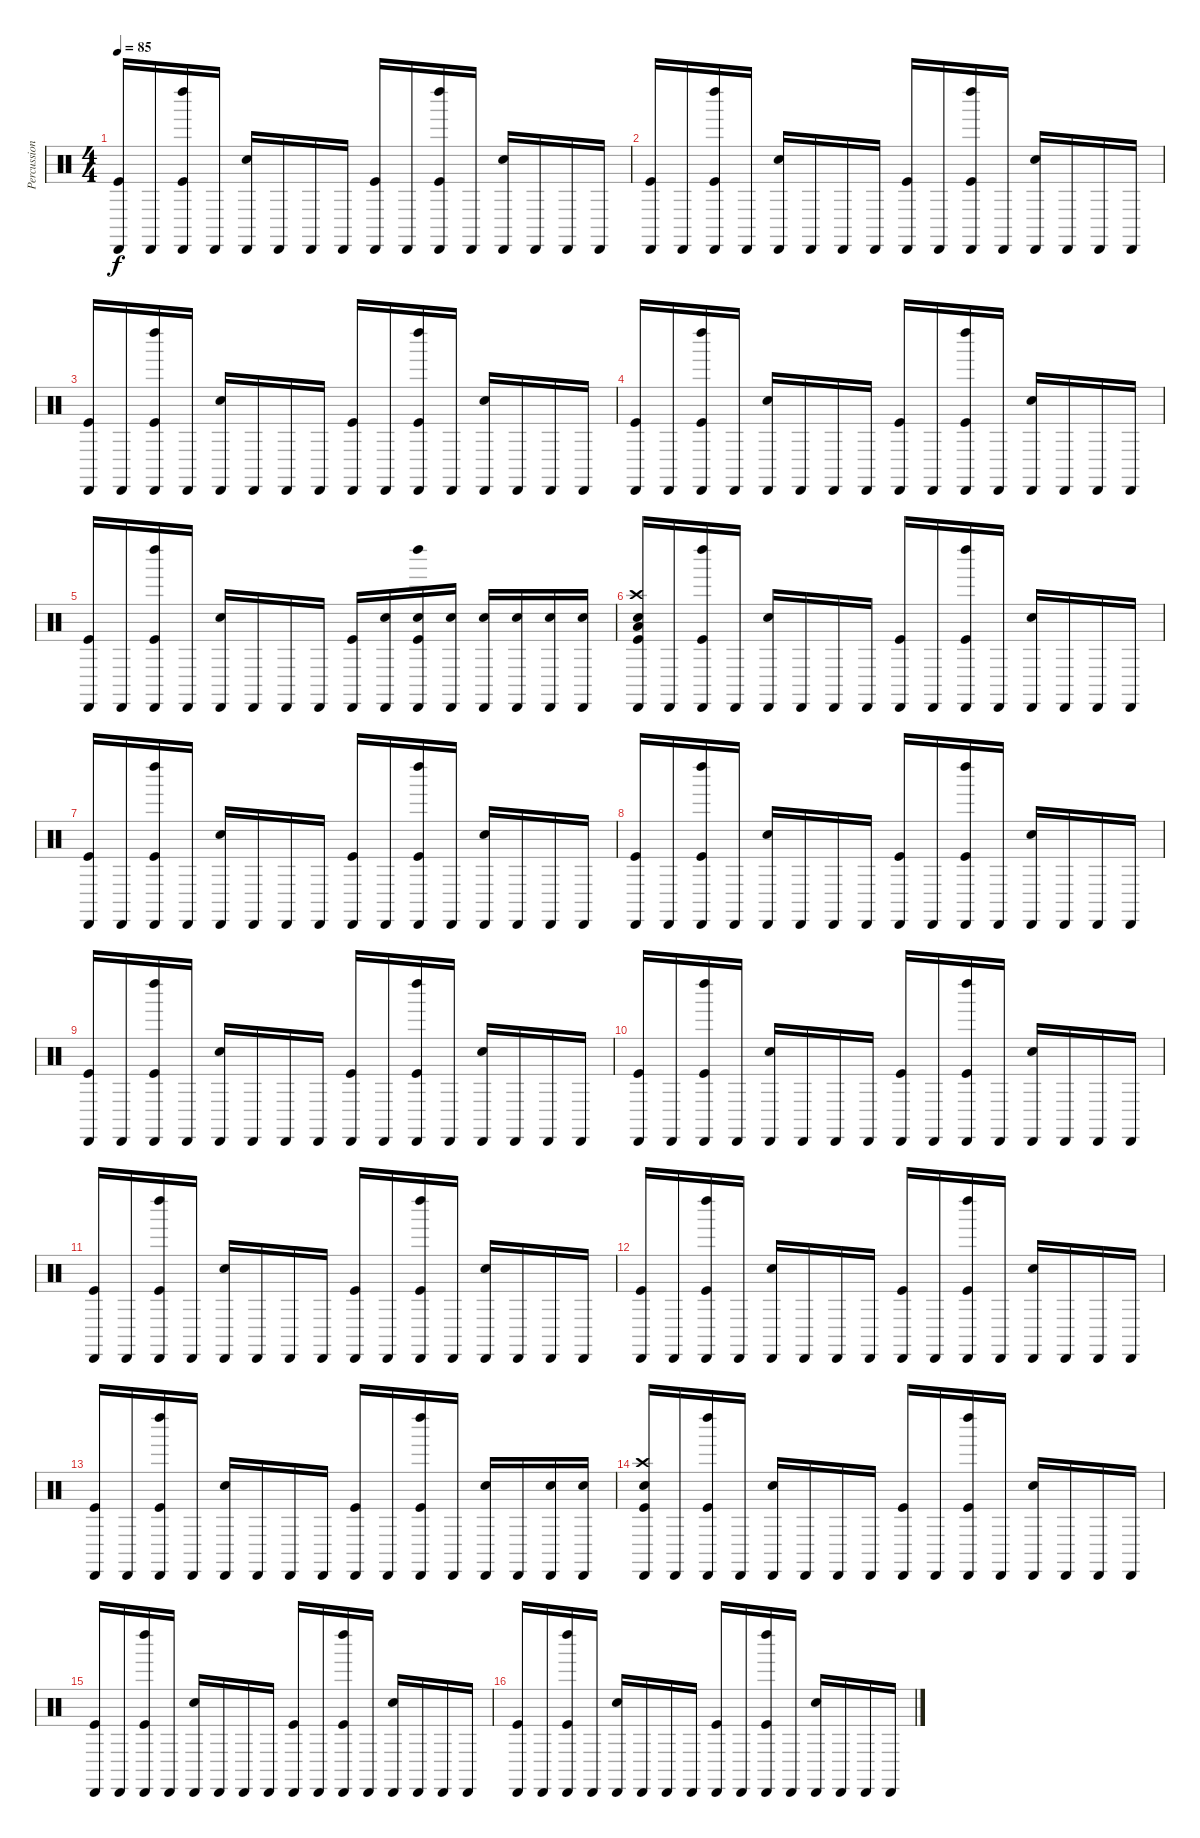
\track ("Percussions" "Percussion") {instrument percussion}
\staff {score}
\articulation defaults
\ts (4 4)
\tempo 85
\clef neutral
\ks c
("Cabasa (hit)" "Kick (hit)").16{dy f} "Cabasa (hit)".16 ("Kick (hit)" "Cabasa (hit)" "Left Maraca (hit)").16 "Cabasa (hit)".16 ("Snare (hit) 2" "Cabasa (hit)").16 "Cabasa (hit)".16 "Cabasa (hit)".16 "Cabasa (hit)".16 ("Kick (hit)" "Cabasa (hit)").16 "Cabasa (hit)".16 ("Kick (hit)" "Cabasa (hit)" "Left Maraca (hit)").16 "Cabasa (hit)".16 ("Snare (hit) 2" "Cabasa (hit)").16 "Cabasa (hit)".16 "Cabasa (hit)".16 "Cabasa (hit)".16 |
("Cabasa (hit)" "Kick (hit)").16 "Cabasa (hit)".16 ("Kick (hit)" "Cabasa (hit)" "Left Maraca (hit)").16 "Cabasa (hit)".16 ("Snare (hit) 2" "Cabasa (hit)").16 "Cabasa (hit)".16 "Cabasa (hit)".16 "Cabasa (hit)".16 ("Kick (hit)" "Cabasa (hit)").16 "Cabasa (hit)".16 ("Kick (hit)" "Cabasa (hit)" "Left Maraca (hit)").16 "Cabasa (hit)".16 ("Snare (hit) 2" "Cabasa (hit)").16 "Cabasa (hit)".16 "Cabasa (hit)".16 "Cabasa (hit)".16 |
("Cabasa (hit)" "Kick (hit)").16 "Cabasa (hit)".16 ("Kick (hit)" "Cabasa (hit)" "Left Maraca (hit)").16 "Cabasa (hit)".16 ("Snare (hit) 2" "Cabasa (hit)").16 "Cabasa (hit)".16 "Cabasa (hit)".16 "Cabasa (hit)".16 ("Kick (hit)" "Cabasa (hit)").16 "Cabasa (hit)".16 ("Kick (hit)" "Cabasa (hit)" "Left Maraca (hit)").16 "Cabasa (hit)".16 ("Snare (hit) 2" "Cabasa (hit)").16 "Cabasa (hit)".16 "Cabasa (hit)".16 "Cabasa (hit)".16 |
("Cabasa (hit)" "Kick (hit)").16 "Cabasa (hit)".16 ("Kick (hit)" "Cabasa (hit)" "Left Maraca (hit)").16 "Cabasa (hit)".16 ("Snare (hit) 2" "Cabasa (hit)").16 "Cabasa (hit)".16 "Cabasa (hit)".16 "Cabasa (hit)".16 ("Kick (hit)" "Cabasa (hit)").16 "Cabasa (hit)".16 ("Kick (hit)" "Cabasa (hit)" "Left Maraca (hit)").16 "Cabasa (hit)".16 ("Snare (hit) 2" "Cabasa (hit)").16 "Cabasa (hit)".16 "Cabasa (hit)".16 "Cabasa (hit)".16 |
("Cabasa (hit)" "Kick (hit)").16 "Cabasa (hit)".16 ("Kick (hit)" "Cabasa (hit)" "Left Maraca (hit)").16 "Cabasa (hit)".16 ("Snare (hit) 2" "Cabasa (hit)").16 "Cabasa (hit)".16 "Cabasa (hit)".16 "Cabasa (hit)".16 ("Kick (hit)" "Cabasa (hit)").16 ("Cabasa (hit)" "Snare (hit) 2").16 ("Kick (hit)" "Cabasa (hit)" "Left Maraca (hit)" "Snare (hit) 2").16 ("Cabasa (hit)" "Snare (hit) 2").16 ("Cabasa (hit)" "Snare (hit) 2").16 ("Cabasa (hit)" "Snare (hit) 2").16 ("Cabasa (hit)" "Snare (hit) 2").16 ("Cabasa (hit)" "Snare (hit) 2").16 |
("Cabasa (hit)" "Kick (hit)" "Low Tom (hit)" "Crash high (hit)" "Snare (hit) 2").16 "Cabasa (hit)".16 ("Kick (hit)" "Cabasa (hit)" "Left Maraca (hit)").16 "Cabasa (hit)".16 ("Snare (hit) 2" "Cabasa (hit)").16 "Cabasa (hit)".16 "Cabasa (hit)".16 "Cabasa (hit)".16 ("Kick (hit)" "Cabasa (hit)").16 "Cabasa (hit)".16 ("Kick (hit)" "Cabasa (hit)" "Left Maraca (hit)").16 "Cabasa (hit)".16 ("Snare (hit) 2" "Cabasa (hit)").16 "Cabasa (hit)".16 "Cabasa (hit)".16 "Cabasa (hit)".16 |
("Cabasa (hit)" "Kick (hit)").16 "Cabasa (hit)".16 ("Kick (hit)" "Cabasa (hit)" "Left Maraca (hit)").16 "Cabasa (hit)".16 ("Snare (hit) 2" "Cabasa (hit)").16 "Cabasa (hit)".16 "Cabasa (hit)".16 "Cabasa (hit)".16 ("Kick (hit)" "Cabasa (hit)").16 "Cabasa (hit)".16 ("Kick (hit)" "Cabasa (hit)" "Left Maraca (hit)").16 "Cabasa (hit)".16 ("Snare (hit) 2" "Cabasa (hit)").16 "Cabasa (hit)".16 "Cabasa (hit)".16 "Cabasa (hit)".16 |
("Cabasa (hit)" "Kick (hit)").16 "Cabasa (hit)".16 ("Kick (hit)" "Cabasa (hit)" "Left Maraca (hit)").16 "Cabasa (hit)".16 ("Snare (hit) 2" "Cabasa (hit)").16 "Cabasa (hit)".16 "Cabasa (hit)".16 "Cabasa (hit)".16 ("Kick (hit)" "Cabasa (hit)").16 "Cabasa (hit)".16 ("Kick (hit)" "Cabasa (hit)" "Left Maraca (hit)").16 "Cabasa (hit)".16 ("Snare (hit) 2" "Cabasa (hit)").16 "Cabasa (hit)".16 "Cabasa (hit)".16 "Cabasa (hit)".16 |
("Cabasa (hit)" "Kick (hit)").16 "Cabasa (hit)".16 ("Kick (hit)" "Cabasa (hit)" "Left Maraca (hit)").16 "Cabasa (hit)".16 ("Snare (hit) 2" "Cabasa (hit)").16 "Cabasa (hit)".16 "Cabasa (hit)".16 "Cabasa (hit)".16 ("Kick (hit)" "Cabasa (hit)").16 "Cabasa (hit)".16 ("Kick (hit)" "Cabasa (hit)" "Left Maraca (hit)").16 "Cabasa (hit)".16 ("Snare (hit) 2" "Cabasa (hit)").16 "Cabasa (hit)".16 "Cabasa (hit)".16 "Cabasa (hit)".16 |
("Cabasa (hit)" "Kick (hit)").16 "Cabasa (hit)".16 ("Kick (hit)" "Cabasa (hit)" "Left Maraca (hit)").16 "Cabasa (hit)".16 ("Snare (hit) 2" "Cabasa (hit)").16 "Cabasa (hit)".16 "Cabasa (hit)".16 "Cabasa (hit)".16 ("Kick (hit)" "Cabasa (hit)").16 "Cabasa (hit)".16 ("Kick (hit)" "Cabasa (hit)" "Left Maraca (hit)").16 "Cabasa (hit)".16 ("Snare (hit) 2" "Cabasa (hit)").16 "Cabasa (hit)".16 "Cabasa (hit)".16 "Cabasa (hit)".16 |
("Cabasa (hit)" "Kick (hit)").16 "Cabasa (hit)".16 ("Kick (hit)" "Cabasa (hit)" "Left Maraca (hit)").16 "Cabasa (hit)".16 ("Snare (hit) 2" "Cabasa (hit)").16 "Cabasa (hit)".16 "Cabasa (hit)".16 "Cabasa (hit)".16 ("Kick (hit)" "Cabasa (hit)").16 "Cabasa (hit)".16 ("Kick (hit)" "Cabasa (hit)" "Left Maraca (hit)").16 "Cabasa (hit)".16 ("Snare (hit) 2" "Cabasa (hit)").16 "Cabasa (hit)".16 "Cabasa (hit)".16 "Cabasa (hit)".16 |
("Cabasa (hit)" "Kick (hit)").16 "Cabasa (hit)".16 ("Kick (hit)" "Cabasa (hit)" "Left Maraca (hit)").16 "Cabasa (hit)".16 ("Snare (hit) 2" "Cabasa (hit)").16 "Cabasa (hit)".16 "Cabasa (hit)".16 "Cabasa (hit)".16 ("Kick (hit)" "Cabasa (hit)").16 "Cabasa (hit)".16 ("Kick (hit)" "Cabasa (hit)" "Left Maraca (hit)").16 "Cabasa (hit)".16 ("Snare (hit) 2" "Cabasa (hit)").16 "Cabasa (hit)".16 "Cabasa (hit)".16 "Cabasa (hit)".16 |
("Cabasa (hit)" "Kick (hit)").16 "Cabasa (hit)".16 ("Kick (hit)" "Cabasa (hit)" "Left Maraca (hit)").16 "Cabasa (hit)".16 ("Snare (hit) 2" "Cabasa (hit)").16 "Cabasa (hit)".16 "Cabasa (hit)".16 "Cabasa (hit)".16 ("Kick (hit)" "Cabasa (hit)").16 "Cabasa (hit)".16 ("Kick (hit)" "Cabasa (hit)" "Left Maraca (hit)").16 "Cabasa (hit)".16 ("Snare (hit) 2" "Cabasa (hit)").16 "Cabasa (hit)".16 ("Cabasa (hit)" "Snare (hit) 2").16 ("Cabasa (hit)" "Snare (hit) 2").16 |
("Cabasa (hit)" "Kick (hit)" "Snare (hit) 2" "Crash high (hit)").16 "Cabasa (hit)".16 ("Kick (hit)" "Cabasa (hit)" "Left Maraca (hit)").16 "Cabasa (hit)".16 ("Snare (hit) 2" "Cabasa (hit)").16 "Cabasa (hit)".16 "Cabasa (hit)".16 "Cabasa (hit)".16 ("Kick (hit)" "Cabasa (hit)").16 "Cabasa (hit)".16 ("Kick (hit)" "Cabasa (hit)" "Left Maraca (hit)").16 "Cabasa (hit)".16 ("Snare (hit) 2" "Cabasa (hit)").16 "Cabasa (hit)".16 "Cabasa (hit)".16 "Cabasa (hit)".16 |
("Cabasa (hit)" "Kick (hit)").16 "Cabasa (hit)".16 ("Kick (hit)" "Cabasa (hit)" "Left Maraca (hit)").16 "Cabasa (hit)".16 ("Snare (hit) 2" "Cabasa (hit)").16 "Cabasa (hit)".16 "Cabasa (hit)".16 "Cabasa (hit)".16 ("Kick (hit)" "Cabasa (hit)").16 "Cabasa (hit)".16 ("Kick (hit)" "Cabasa (hit)" "Left Maraca (hit)").16 "Cabasa (hit)".16 ("Snare (hit) 2" "Cabasa (hit)").16 "Cabasa (hit)".16 "Cabasa (hit)".16 "Cabasa (hit)".16 |
("Cabasa (hit)" "Kick (hit)").16 "Cabasa (hit)".16 ("Kick (hit)" "Cabasa (hit)" "Left Maraca (hit)").16 "Cabasa (hit)".16 ("Snare (hit) 2" "Cabasa (hit)").16 "Cabasa (hit)".16 "Cabasa (hit)".16 "Cabasa (hit)".16 ("Kick (hit)" "Cabasa (hit)").16 "Cabasa (hit)".16 ("Kick (hit)" "Cabasa (hit)" "Left Maraca (hit)").16 "Cabasa (hit)".16 ("Snare (hit) 2" "Cabasa (hit)").16 "Cabasa (hit)".16 "Cabasa (hit)".16 "Cabasa (hit)".16
